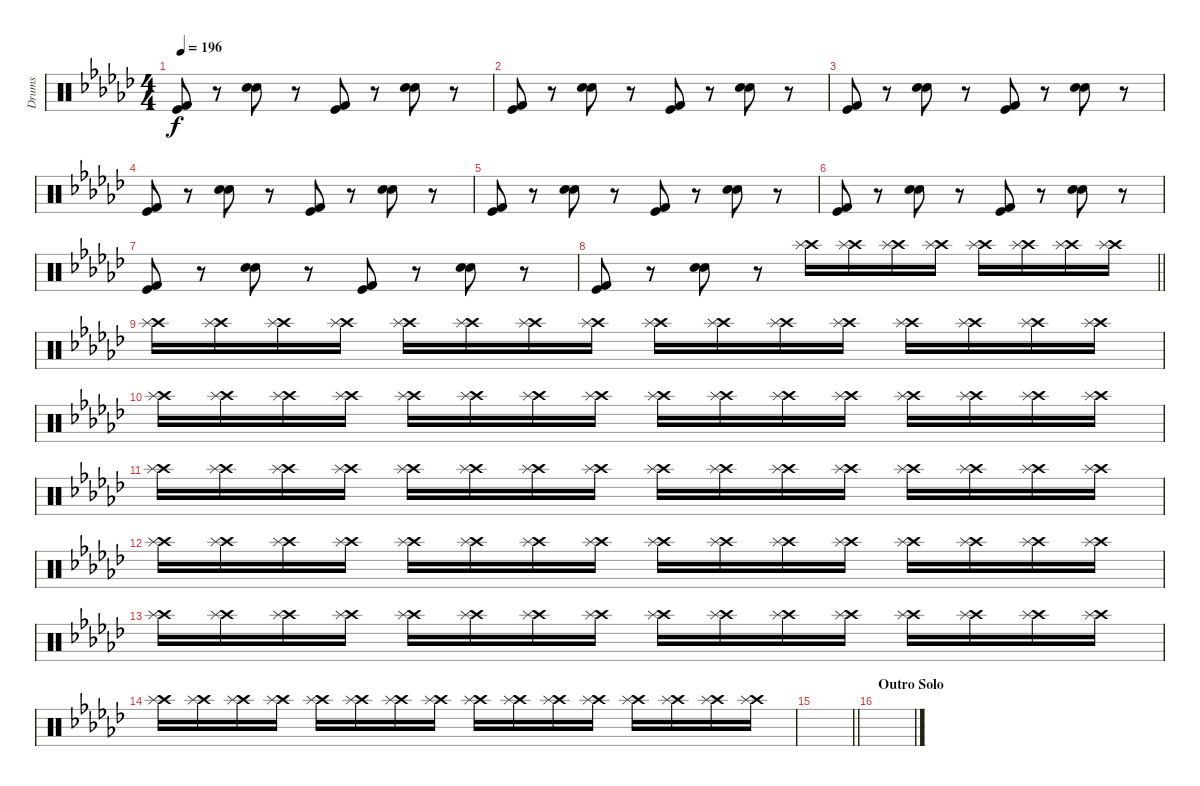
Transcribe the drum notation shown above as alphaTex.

\track ("Drums" "Drums") {instrument percussion}
\staff {score}
\articulation defaults
\ts (4 4)
\tempo 196
\clef neutral
\ks gb
("Kick (hit) 2" "Kick (hit)").8{dy f} r.8 ("Snare (hit) 2" "Electric Snare (hit)").8 r.8 ("Kick (hit) 2" "Kick (hit)").8 r.8 ("Snare (hit) 2" "Electric Snare (hit)").8 r.8 |
("Kick (hit) 2" "Kick (hit)").8 r.8 ("Snare (hit) 2" "Electric Snare (hit)").8 r.8 ("Kick (hit) 2" "Kick (hit)").8 r.8 ("Snare (hit) 2" "Electric Snare (hit)").8 r.8 |
("Kick (hit) 2" "Kick (hit)").8 r.8 ("Snare (hit) 2" "Electric Snare (hit)").8 r.8 ("Kick (hit) 2" "Kick (hit)").8 r.8 ("Snare (hit) 2" "Electric Snare (hit)").8 r.8 |
("Kick (hit) 2" "Kick (hit)").8 r.8 ("Snare (hit) 2" "Electric Snare (hit)").8 r.8 ("Kick (hit) 2" "Kick (hit)").8 r.8 ("Snare (hit) 2" "Electric Snare (hit)").8 r.8 |
("Kick (hit) 2" "Kick (hit)").8 r.8 ("Snare (hit) 2" "Electric Snare (hit)").8 r.8 ("Kick (hit) 2" "Kick (hit)").8 r.8 ("Snare (hit) 2" "Electric Snare (hit)").8 r.8 |
("Kick (hit) 2" "Kick (hit)").8 r.8 ("Snare (hit) 2" "Electric Snare (hit)").8 r.8 ("Kick (hit) 2" "Kick (hit)").8 r.8 ("Snare (hit) 2" "Electric Snare (hit)").8 r.8 |
("Kick (hit) 2" "Kick (hit)").8 r.8 ("Snare (hit) 2" "Electric Snare (hit)").8 r.8 ("Kick (hit) 2" "Kick (hit)").8 r.8 ("Snare (hit) 2" "Electric Snare (hit)").8 r.8 |
\barLineRight lightlight
("Kick (hit) 2" "Kick (hit)").8 r.8 ("Snare (hit) 2" "Electric Snare (hit)").8 r.8 ("Crash high (hit)" "Splash (hit)").16 ("Crash high (hit)" "Splash (hit)").16 ("Crash high (hit)" "Splash (hit)").16 ("Crash high (hit)" "Splash (hit)").16 ("Crash high (hit)" "Splash (hit)").16 ("Crash high (hit)" "Splash (hit)").16 ("Crash high (hit)" "Splash (hit)").16 ("Crash high (hit)" "Splash (hit)").16 |
("Crash high (hit)" "Splash (hit)").16 ("Crash high (hit)" "Splash (hit)").16 ("Crash high (hit)" "Splash (hit)").16 ("Crash high (hit)" "Splash (hit)").16 ("Crash high (hit)" "Splash (hit)").16 ("Crash high (hit)" "Splash (hit)").16 ("Crash high (hit)" "Splash (hit)").16 ("Crash high (hit)" "Splash (hit)").16 ("Crash high (hit)" "Splash (hit)").16 ("Crash high (hit)" "Splash (hit)").16 ("Crash high (hit)" "Splash (hit)").16 ("Crash high (hit)" "Splash (hit)").16 ("Crash high (hit)" "Splash (hit)").16 ("Crash high (hit)" "Splash (hit)").16 ("Crash high (hit)" "Splash (hit)").16 ("Crash high (hit)" "Splash (hit)").16 |
("Crash high (hit)" "Splash (hit)").16 ("Crash high (hit)" "Splash (hit)").16 ("Crash high (hit)" "Splash (hit)").16 ("Crash high (hit)" "Splash (hit)").16 ("Crash high (hit)" "Splash (hit)").16 ("Crash high (hit)" "Splash (hit)").16 ("Crash high (hit)" "Splash (hit)").16 ("Crash high (hit)" "Splash (hit)").16 ("Crash high (hit)" "Splash (hit)").16 ("Crash high (hit)" "Splash (hit)").16 ("Crash high (hit)" "Splash (hit)").16 ("Crash high (hit)" "Splash (hit)").16 ("Crash high (hit)" "Splash (hit)").16 ("Crash high (hit)" "Splash (hit)").16 ("Crash high (hit)" "Splash (hit)").16 ("Crash high (hit)" "Splash (hit)").16 |
("Crash high (hit)" "Splash (hit)").16 ("Crash high (hit)" "Splash (hit)").16 ("Crash high (hit)" "Splash (hit)").16 ("Crash high (hit)" "Splash (hit)").16 ("Crash high (hit)" "Splash (hit)").16 ("Crash high (hit)" "Splash (hit)").16 ("Crash high (hit)" "Splash (hit)").16 ("Crash high (hit)" "Splash (hit)").16 ("Crash high (hit)" "Splash (hit)").16 ("Crash high (hit)" "Splash (hit)").16 ("Crash high (hit)" "Splash (hit)").16 ("Crash high (hit)" "Splash (hit)").16 ("Crash high (hit)" "Splash (hit)").16 ("Crash high (hit)" "Splash (hit)").16 ("Crash high (hit)" "Splash (hit)").16 ("Crash high (hit)" "Splash (hit)").16 |
("Crash high (hit)" "Splash (hit)").16 ("Crash high (hit)" "Splash (hit)").16 ("Crash high (hit)" "Splash (hit)").16 ("Crash high (hit)" "Splash (hit)").16 ("Crash high (hit)" "Splash (hit)").16 ("Crash high (hit)" "Splash (hit)").16 ("Crash high (hit)" "Splash (hit)").16 ("Crash high (hit)" "Splash (hit)").16 ("Crash high (hit)" "Splash (hit)").16 ("Crash high (hit)" "Splash (hit)").16 ("Crash high (hit)" "Splash (hit)").16 ("Crash high (hit)" "Splash (hit)").16 ("Crash high (hit)" "Splash (hit)").16 ("Crash high (hit)" "Splash (hit)").16 ("Crash high (hit)" "Splash (hit)").16 ("Crash high (hit)" "Splash (hit)").16 |
("Crash high (hit)" "Splash (hit)").16 ("Crash high (hit)" "Splash (hit)").16 ("Crash high (hit)" "Splash (hit)").16 ("Crash high (hit)" "Splash (hit)").16 ("Crash high (hit)" "Splash (hit)").16 ("Crash high (hit)" "Splash (hit)").16 ("Crash high (hit)" "Splash (hit)").16 ("Crash high (hit)" "Splash (hit)").16 ("Crash high (hit)" "Splash (hit)").16 ("Crash high (hit)" "Splash (hit)").16 ("Crash high (hit)" "Splash (hit)").16 ("Crash high (hit)" "Splash (hit)").16 ("Crash high (hit)" "Splash (hit)").16 ("Crash high (hit)" "Splash (hit)").16 ("Crash high (hit)" "Splash (hit)").16 ("Crash high (hit)" "Splash (hit)").16 |
("Crash high (hit)" "Splash (hit)").16 ("Crash high (hit)" "Splash (hit)").16 ("Crash high (hit)" "Splash (hit)").16 ("Crash high (hit)" "Splash (hit)").16 ("Crash high (hit)" "Splash (hit)").16 ("Crash high (hit)" "Splash (hit)").16 ("Crash high (hit)" "Splash (hit)").16 ("Crash high (hit)" "Splash (hit)").16 ("Crash high (hit)" "Splash (hit)").16 ("Crash high (hit)" "Splash (hit)").16 ("Crash high (hit)" "Splash (hit)").16 ("Crash high (hit)" "Splash (hit)").16 ("Crash high (hit)" "Splash (hit)").16 ("Crash high (hit)" "Splash (hit)").16 ("Crash high (hit)" "Splash (hit)").16 ("Crash high (hit)" "Splash (hit)").16 |
\barLineRight lightlight
|
\section ("" "Outro Solo")
